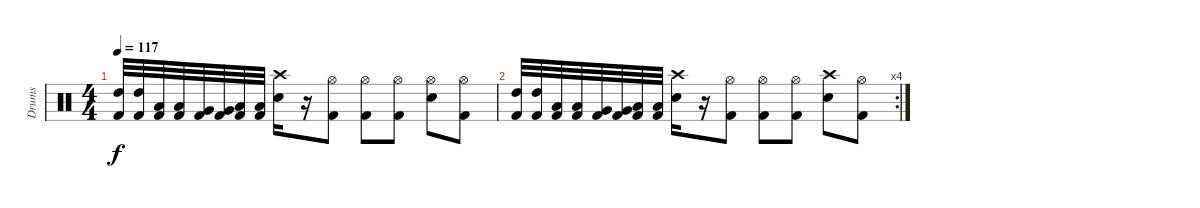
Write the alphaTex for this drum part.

\track ("Drums" "Drums") {instrument percussion}
\staff {score}
\articulation defaults
\ts (4 4)
\tempo 117
\clef neutral
\ks c
("High Tom (hit)" "Kick (hit) 2").32{dy f} ("High Tom (hit)" "Kick (hit) 2").32 ("Low Tom (hit)" "Kick (hit) 2").32 ("Low Tom (hit)" "Kick (hit) 2").32 ("Very Low Tom (hit)" "Kick (hit) 2").32 ("Very Low Tom (hit)" "Kick (hit) 2").32 ("Low Floor Tom (hit)" "Kick (hit) 2").32 ("Low Floor Tom (hit)" "Kick (hit) 2").32 ("Crash high (hit)" "Electric Snare (hit)").16 r.16 ("Hi-Hat (open)" "Kick (hit) 2").8 ("Hi-Hat (open)" "Kick (hit) 2").8 ("Hi-Hat (open)" "Kick (hit) 2").8 ("Hi-Hat (open)" "Electric Snare (hit)").8 ("Hi-Hat (open)" "Kick (hit) 2").8 |
\rc 4
("High Tom (hit)" "Kick (hit) 2").32 ("High Tom (hit)" "Kick (hit) 2").32 ("Low Tom (hit)" "Kick (hit) 2").32 ("Low Tom (hit)" "Kick (hit) 2").32 ("Very Low Tom (hit)" "Kick (hit) 2").32 ("Very Low Tom (hit)" "Kick (hit) 2").32 ("Low Floor Tom (hit)" "Kick (hit) 2").32 ("Low Floor Tom (hit)" "Kick (hit) 2").32 ("Crash high (hit)" "Electric Snare (hit)").16 r.16 ("Hi-Hat (open)" "Kick (hit) 2").8 ("Hi-Hat (open)" "Kick (hit) 2").8 ("Hi-Hat (open)" "Kick (hit) 2").8 ("Crash high (hit)" "Electric Snare (hit)").8 ("Hi-Hat (open)" "Kick (hit) 2").8
